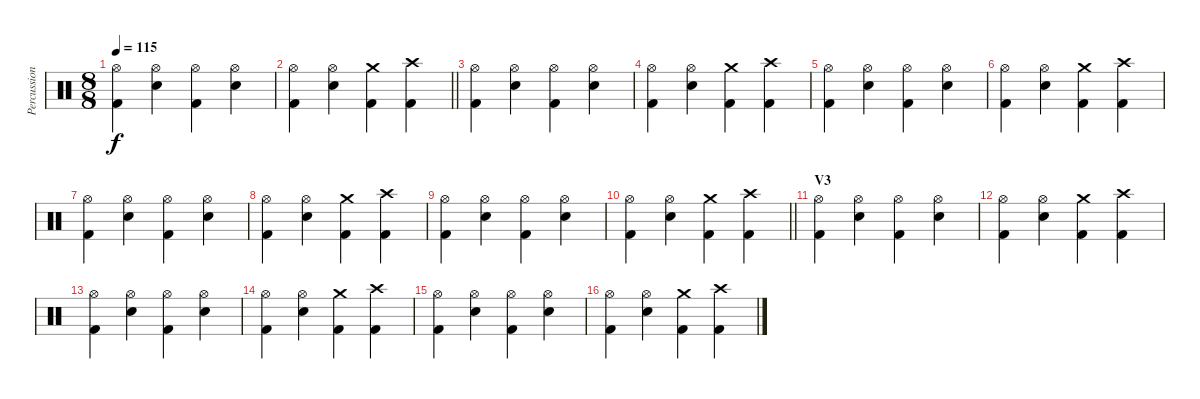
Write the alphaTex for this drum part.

\track ("Percussion" "Percussion") {instrument percussion}
\staff {score}
\articulation defaults
\ts (8 8)
\tempo 115
\clef neutral
\ks c
("Hi-Hat (open)" "Kick (hit) 2").4{dy f} ("Hi-Hat (open)" "Snare (hit) 2").4 ("Hi-Hat (open)" "Kick (hit) 2").4 ("Hi-Hat (open)" "Snare (hit) 2").4 |
\barLineRight lightlight
("Hi-Hat (open)" "Kick (hit) 2").4 ("Hi-Hat (open)" "Snare (hit) 2").4 ("Crash medium (hit)" "Kick (hit) 2").4 ("Crash high (hit)" "Kick (hit) 2").4 |
("Hi-Hat (open)" "Kick (hit) 2").4 ("Hi-Hat (open)" "Snare (hit) 2").4 ("Hi-Hat (open)" "Kick (hit) 2").4 ("Hi-Hat (open)" "Snare (hit) 2").4 |
("Hi-Hat (open)" "Kick (hit) 2").4 ("Hi-Hat (open)" "Snare (hit) 2").4 ("Crash medium (hit)" "Kick (hit) 2").4 ("Crash high (hit)" "Kick (hit) 2").4 |
("Hi-Hat (open)" "Kick (hit) 2").4 ("Hi-Hat (open)" "Snare (hit) 2").4 ("Hi-Hat (open)" "Kick (hit) 2").4 ("Hi-Hat (open)" "Snare (hit) 2").4 |
("Hi-Hat (open)" "Kick (hit) 2").4 ("Hi-Hat (open)" "Snare (hit) 2").4 ("Crash medium (hit)" "Kick (hit) 2").4 ("Crash high (hit)" "Kick (hit) 2").4 |
("Hi-Hat (open)" "Kick (hit) 2").4 ("Hi-Hat (open)" "Snare (hit) 2").4 ("Hi-Hat (open)" "Kick (hit) 2").4 ("Hi-Hat (open)" "Snare (hit) 2").4 |
("Hi-Hat (open)" "Kick (hit) 2").4 ("Hi-Hat (open)" "Snare (hit) 2").4 ("Crash medium (hit)" "Kick (hit) 2").4 ("Crash high (hit)" "Kick (hit) 2").4 |
("Hi-Hat (open)" "Kick (hit) 2").4 ("Hi-Hat (open)" "Snare (hit) 2").4 ("Hi-Hat (open)" "Kick (hit) 2").4 ("Hi-Hat (open)" "Snare (hit) 2").4 |
\barLineRight lightlight
("Hi-Hat (open)" "Kick (hit) 2").4 ("Hi-Hat (open)" "Snare (hit) 2").4 ("Crash medium (hit)" "Kick (hit) 2").4 ("Crash high (hit)" "Kick (hit) 2").4 |
\section ("" "V3")
("Hi-Hat (open)" "Kick (hit) 2").4 ("Hi-Hat (open)" "Snare (hit) 2").4 ("Hi-Hat (open)" "Kick (hit) 2").4 ("Hi-Hat (open)" "Snare (hit) 2").4 |
("Hi-Hat (open)" "Kick (hit) 2").4 ("Hi-Hat (open)" "Snare (hit) 2").4 ("Crash medium (hit)" "Kick (hit) 2").4 ("Crash high (hit)" "Kick (hit) 2").4 |
("Hi-Hat (open)" "Kick (hit) 2").4 ("Hi-Hat (open)" "Snare (hit) 2").4 ("Hi-Hat (open)" "Kick (hit) 2").4 ("Hi-Hat (open)" "Snare (hit) 2").4 |
("Hi-Hat (open)" "Kick (hit) 2").4 ("Hi-Hat (open)" "Snare (hit) 2").4 ("Crash medium (hit)" "Kick (hit) 2").4 ("Crash high (hit)" "Kick (hit) 2").4 |
("Hi-Hat (open)" "Kick (hit) 2").4 ("Hi-Hat (open)" "Snare (hit) 2").4 ("Hi-Hat (open)" "Kick (hit) 2").4 ("Hi-Hat (open)" "Snare (hit) 2").4 |
("Hi-Hat (open)" "Kick (hit) 2").4 ("Hi-Hat (open)" "Snare (hit) 2").4 ("Crash medium (hit)" "Kick (hit) 2").4 ("Crash high (hit)" "Kick (hit) 2").4
